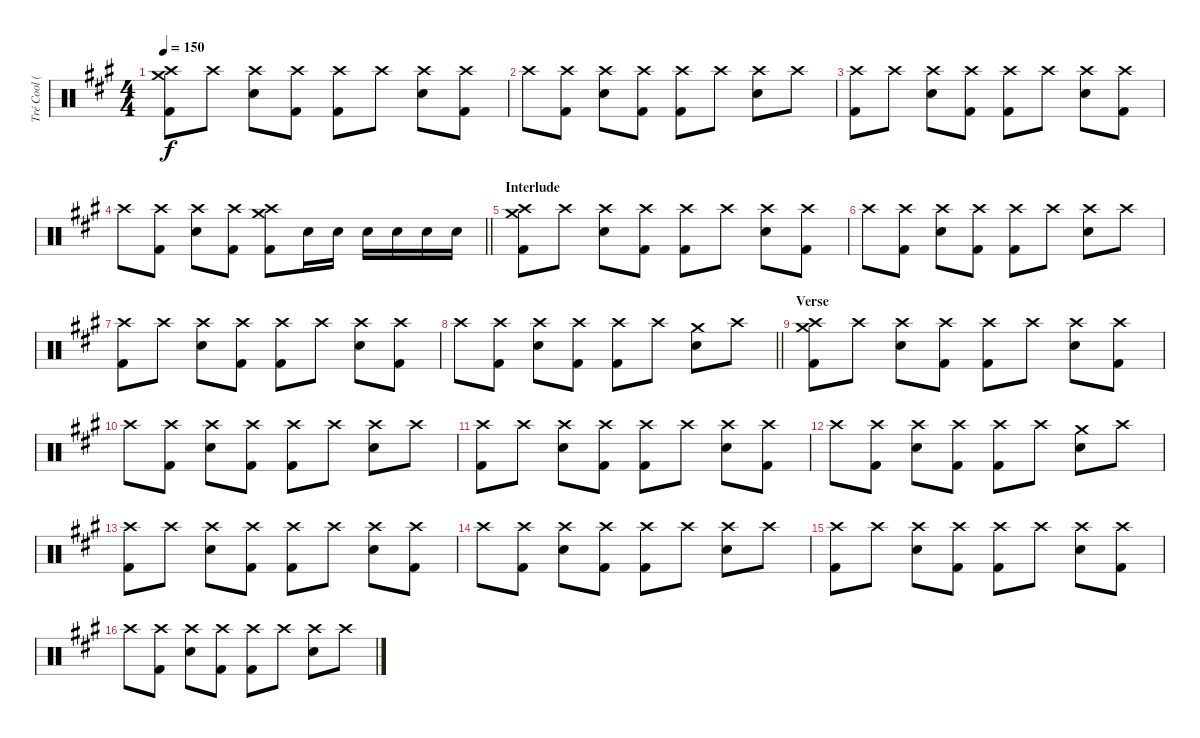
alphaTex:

\track ("Tré Cool (Drums)" "Tré Cool (") {instrument percussion}
\staff {score}
\articulation defaults
\ts (4 4)
\tempo 150
\clef neutral
\ks a
("Crash high (hit)" "Crash medium (hit)" "Kick (hit) 2").8{dy f} "Crash high (hit)".8 ("Crash high (hit)" "Snare (hit) 2").8 ("Crash high (hit)" "Kick (hit) 2").8 ("Crash high (hit)" "Kick (hit) 2").8 "Crash high (hit)".8 ("Crash high (hit)" "Snare (hit) 2").8 ("Crash high (hit)" "Kick (hit) 2").8 |
"Crash high (hit)".8 ("Crash high (hit)" "Kick (hit) 2").8 ("Crash high (hit)" "Snare (hit) 2").8 ("Crash high (hit)" "Kick (hit) 2").8 ("Crash high (hit)" "Kick (hit) 2").8 "Crash high (hit)".8 ("Crash high (hit)" "Snare (hit) 2").8 "Crash high (hit)".8 |
("Crash high (hit)" "Kick (hit) 2").8 "Crash high (hit)".8 ("Crash high (hit)" "Snare (hit) 2").8 ("Crash high (hit)" "Kick (hit) 2").8 ("Crash high (hit)" "Kick (hit) 2").8 "Crash high (hit)".8 ("Crash high (hit)" "Snare (hit) 2").8 ("Crash high (hit)" "Kick (hit) 2").8 |
\barLineRight lightlight "Crash high (hit)".8
("Crash high (hit)" "Kick (hit) 2").8 ("Crash high (hit)" "Snare (hit) 2").8 ("Crash high (hit)" "Kick (hit) 2").8 ("Crash high (hit)" "Crash medium (hit)" "Kick (hit) 2").8 "Snare (hit) 2".16 "Snare (hit) 2".16 "Snare (hit) 2".16 "Snare (hit) 2".16 "Snare (hit) 2".16 "Snare (hit) 2".16 |
\section ("" "Interlude")
("Crash high (hit)" "Crash medium (hit)" "Kick (hit) 2").8 "Crash high (hit)".8 ("Crash high (hit)" "Snare (hit) 2").8 ("Crash high (hit)" "Kick (hit) 2").8 ("Crash high (hit)" "Kick (hit) 2").8 "Crash high (hit)".8 ("Crash high (hit)" "Snare (hit) 2").8 ("Crash high (hit)" "Kick (hit) 2").8 |
"Crash high (hit)".8 ("Crash high (hit)" "Kick (hit) 2").8 ("Crash high (hit)" "Snare (hit) 2").8 ("Crash high (hit)" "Kick (hit) 2").8 ("Crash high (hit)" "Kick (hit) 2").8 "Crash high (hit)".8 ("Crash high (hit)" "Snare (hit) 2").8 "Crash high (hit)".8 |
("Crash high (hit)" "Kick (hit) 2").8 "Crash high (hit)".8 ("Crash high (hit)" "Snare (hit) 2").8 ("Crash high (hit)" "Kick (hit) 2").8 ("Crash high (hit)" "Kick (hit) 2").8 "Crash high (hit)".8 ("Crash high (hit)" "Snare (hit) 2").8 ("Crash high (hit)" "Kick (hit) 2").8 |
\barLineRight lightlight "Crash high (hit)".8
("Crash high (hit)" "Kick (hit) 2").8 ("Crash high (hit)" "Snare (hit) 2").8 ("Crash high (hit)" "Kick (hit) 2").8 ("Crash high (hit)" "Kick (hit) 2").8 "Crash high (hit)".8 ("Crash medium (hit)" "Snare (hit) 2").8 "Crash high (hit)".8 |
\section ("" "Verse")
("Crash high (hit)" "Crash medium (hit)" "Kick (hit) 2").8 "Crash high (hit)".8 ("Crash high (hit)" "Snare (hit) 2").8 ("Crash high (hit)" "Kick (hit) 2").8 ("Crash high (hit)" "Kick (hit) 2").8 "Crash high (hit)".8 ("Crash high (hit)" "Snare (hit) 2").8 ("Crash high (hit)" "Kick (hit) 2").8 |
"Crash high (hit)".8 ("Crash high (hit)" "Kick (hit) 2").8 ("Crash high (hit)" "Snare (hit) 2").8 ("Crash high (hit)" "Kick (hit) 2").8 ("Crash high (hit)" "Kick (hit) 2").8 "Crash high (hit)".8 ("Crash high (hit)" "Snare (hit) 2").8 "Crash high (hit)".8 |
("Crash high (hit)" "Kick (hit) 2").8 "Crash high (hit)".8 ("Crash high (hit)" "Snare (hit) 2").8 ("Crash high (hit)" "Kick (hit) 2").8 ("Crash high (hit)" "Kick (hit) 2").8 "Crash high (hit)".8 ("Crash high (hit)" "Snare (hit) 2").8 ("Crash high (hit)" "Kick (hit) 2").8 |
"Crash high (hit)".8 ("Crash high (hit)" "Kick (hit) 2").8 ("Crash high (hit)" "Snare (hit) 2").8 ("Crash high (hit)" "Kick (hit) 2").8 ("Crash high (hit)" "Kick (hit) 2").8 "Crash high (hit)".8 ("Crash medium (hit)" "Snare (hit) 2").8 "Crash high (hit)".8 |
("Crash high (hit)" "Kick (hit) 2").8 "Crash high (hit)".8 ("Crash high (hit)" "Snare (hit) 2").8 ("Crash high (hit)" "Kick (hit) 2").8 ("Crash high (hit)" "Kick (hit) 2").8 "Crash high (hit)".8 ("Crash high (hit)" "Snare (hit) 2").8 ("Crash high (hit)" "Kick (hit) 2").8 |
"Crash high (hit)".8 ("Crash high (hit)" "Kick (hit) 2").8 ("Crash high (hit)" "Snare (hit) 2").8 ("Crash high (hit)" "Kick (hit) 2").8 ("Crash high (hit)" "Kick (hit) 2").8 "Crash high (hit)".8 ("Crash high (hit)" "Snare (hit) 2").8 "Crash high (hit)".8 |
("Crash high (hit)" "Kick (hit) 2").8 "Crash high (hit)".8 ("Crash high (hit)" "Snare (hit) 2").8 ("Crash high (hit)" "Kick (hit) 2").8 ("Crash high (hit)" "Kick (hit) 2").8 "Crash high (hit)".8 ("Crash high (hit)" "Snare (hit) 2").8 ("Crash high (hit)" "Kick (hit) 2").8 |
"Crash high (hit)".8 ("Crash high (hit)" "Kick (hit) 2").8 ("Crash high (hit)" "Snare (hit) 2").8 ("Crash high (hit)" "Kick (hit) 2").8 ("Crash high (hit)" "Kick (hit) 2").8 "Crash high (hit)".8 ("Crash high (hit)" "Snare (hit) 2").8 "Crash high (hit)".8
